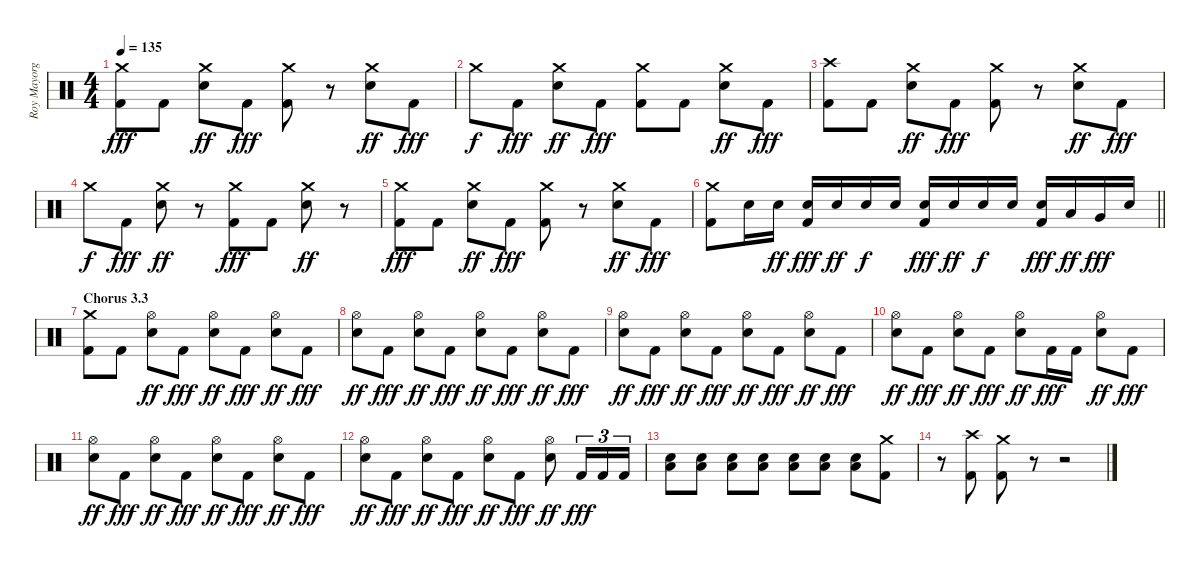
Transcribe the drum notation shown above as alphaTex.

\track ("Roy Mayorga" "Roy Mayorg") {instrument percussion}
\staff {score}
\articulation defaults
\ts (4 4)
\tempo 135
\clef neutral
\ks c
("Crash medium (hit)" "Kick (hit) 2").8{dy fff} "Kick (hit) 2".8 ("Crash medium (hit)" "Electric Snare (hit)").8{dy ff} "Kick (hit) 2".8{dy fff} ("Crash medium (hit)" "Kick (hit) 2").8 r.8 ("Crash medium (hit)" "Electric Snare (hit)").8{dy ff} "Kick (hit) 2".8{dy fff} |
"Crash medium (hit)".8{dy f} "Kick (hit) 2".8{dy fff} ("Crash medium (hit)" "Electric Snare (hit)").8{dy ff} "Kick (hit) 2".8{dy fff} ("Crash medium (hit)" "Kick (hit) 2").8 "Kick (hit) 2".8 ("Crash medium (hit)" "Electric Snare (hit)").8{dy ff} "Kick (hit) 2".8{dy fff} |
("Crash high (hit)" "Kick (hit) 2").8 "Kick (hit) 2".8 ("Crash medium (hit)" "Electric Snare (hit)").8{dy ff} "Kick (hit) 2".8{dy fff} ("Crash medium (hit)" "Kick (hit) 2").8 r.8 ("Crash medium (hit)" "Electric Snare (hit)").8{dy ff} "Kick (hit) 2".8{dy fff} |
"Crash medium (hit)".8{dy f} "Kick (hit) 2".8{dy fff} ("Crash medium (hit)" "Electric Snare (hit)").8{dy ff} r.8 ("Crash medium (hit)" "Kick (hit) 2").8{dy fff} "Kick (hit) 2".8 ("Crash medium (hit)" "Electric Snare (hit)").8{dy ff} r.8 |
("Crash medium (hit)" "Kick (hit) 2").8{dy fff} "Kick (hit) 2".8 ("Crash medium (hit)" "Electric Snare (hit)").8{dy ff} "Kick (hit) 2".8{dy fff} ("Crash medium (hit)" "Kick (hit) 2").8 r.8 ("Crash medium (hit)" "Electric Snare (hit)").8{dy ff} "Kick (hit) 2".8{dy fff} |
\barLineRight lightlight
("Crash medium (hit)" "Kick (hit) 2").8 "Electric Snare (hit)".16 "Electric Snare (hit)".16{dy ff} ("Electric Snare (hit)" "Kick (hit) 2").16{dy fff} "Electric Snare (hit)".16{dy ff} "Electric Snare (hit)".16{dy f} "Electric Snare (hit)".16 ("Electric Snare (hit)" "Kick (hit) 2").16{dy fff} "Electric Snare (hit)".16{dy ff} "Electric Snare (hit)".16{dy f} "Electric Snare (hit)".16 ("Electric Snare (hit)" "Kick (hit) 2").16{dy fff} "Low Tom (hit)".16{dy ff} "Very Low Tom (hit)".16{dy fff} "Electric Snare (hit)".16 |
\section ("" "Chorus 3.3")
("Crash medium (hit)" "Kick (hit) 2").8 "Kick (hit) 2".8 ("Hi-Hat (open)" "Electric Snare (hit)").8{dy ff} "Kick (hit) 2".8{dy fff} ("Hi-Hat (open)" "Electric Snare (hit)").8{dy ff} "Kick (hit) 2".8{dy fff} ("Hi-Hat (open)" "Electric Snare (hit)").8{dy ff} "Kick (hit) 2".8{dy fff} |
("Hi-Hat (open)" "Electric Snare (hit)").8{dy ff} "Kick (hit) 2".8{dy fff} ("Hi-Hat (open)" "Electric Snare (hit)").8{dy ff} "Kick (hit) 2".8{dy fff} ("Hi-Hat (open)" "Electric Snare (hit)").8{dy ff} "Kick (hit) 2".8{dy fff} ("Hi-Hat (open)" "Electric Snare (hit)").8{dy ff} "Kick (hit) 2".8{dy fff} |
("Hi-Hat (open)" "Electric Snare (hit)").8{dy ff} "Kick (hit) 2".8{dy fff} ("Hi-Hat (open)" "Electric Snare (hit)").8{dy ff} "Kick (hit) 2".8{dy fff} ("Hi-Hat (open)" "Electric Snare (hit)").8{dy ff} "Kick (hit) 2".8{dy fff} ("Hi-Hat (open)" "Electric Snare (hit)").8{dy ff} "Kick (hit) 2".8{dy fff} |
("Hi-Hat (open)" "Electric Snare (hit)").8{dy ff} "Kick (hit) 2".8{dy fff} ("Hi-Hat (open)" "Electric Snare (hit)").8{dy ff} "Kick (hit) 2".8{dy fff} ("Hi-Hat (open)" "Electric Snare (hit)").8{dy ff} "Kick (hit) 2".16{dy fff} "Kick (hit) 2".16 ("Hi-Hat (open)" "Electric Snare (hit)").8{dy ff} "Kick (hit) 2".8{dy fff} |
("Hi-Hat (open)" "Electric Snare (hit)").8{dy ff} "Kick (hit) 2".8{dy fff} ("Hi-Hat (open)" "Electric Snare (hit)").8{dy ff} "Kick (hit) 2".8{dy fff} ("Hi-Hat (open)" "Electric Snare (hit)").8{dy ff} "Kick (hit) 2".8{dy fff} ("Hi-Hat (open)" "Electric Snare (hit)").8{dy ff} "Kick (hit) 2".8{dy fff} |
("Hi-Hat (open)" "Electric Snare (hit)").8{dy ff} "Kick (hit) 2".8{dy fff} ("Hi-Hat (open)" "Electric Snare (hit)").8{dy ff} "Kick (hit) 2".8{dy fff} ("Hi-Hat (open)" "Electric Snare (hit)").8{dy ff} "Kick (hit) 2".8{dy fff} ("Hi-Hat (open)" "Electric Snare (hit)").8{dy ff} "Kick (hit) 2".16{tu (3 2) dy fff} "Kick (hit) 2".16{tu (3 2)} "Kick (hit) 2".16{tu (3 2)} |
("Electric Snare (hit)" "Low Floor Tom (hit)").8 ("Electric Snare (hit)" "Low Floor Tom (hit)").8 ("Electric Snare (hit)" "Low Floor Tom (hit)").8 ("Electric Snare (hit)" "Low Floor Tom (hit)").8 ("Electric Snare (hit)" "Low Floor Tom (hit)").8 ("Electric Snare (hit)" "Low Floor Tom (hit)").8 ("Electric Snare (hit)" "Low Floor Tom (hit)").8 ("Crash medium (hit)" "Kick (hit) 2").8 |
r.8 ("Crash high (hit)" "Kick (hit) 2").8 ("Crash medium (hit)" "Kick (hit) 2").8 r.8{volume 0} r.2
